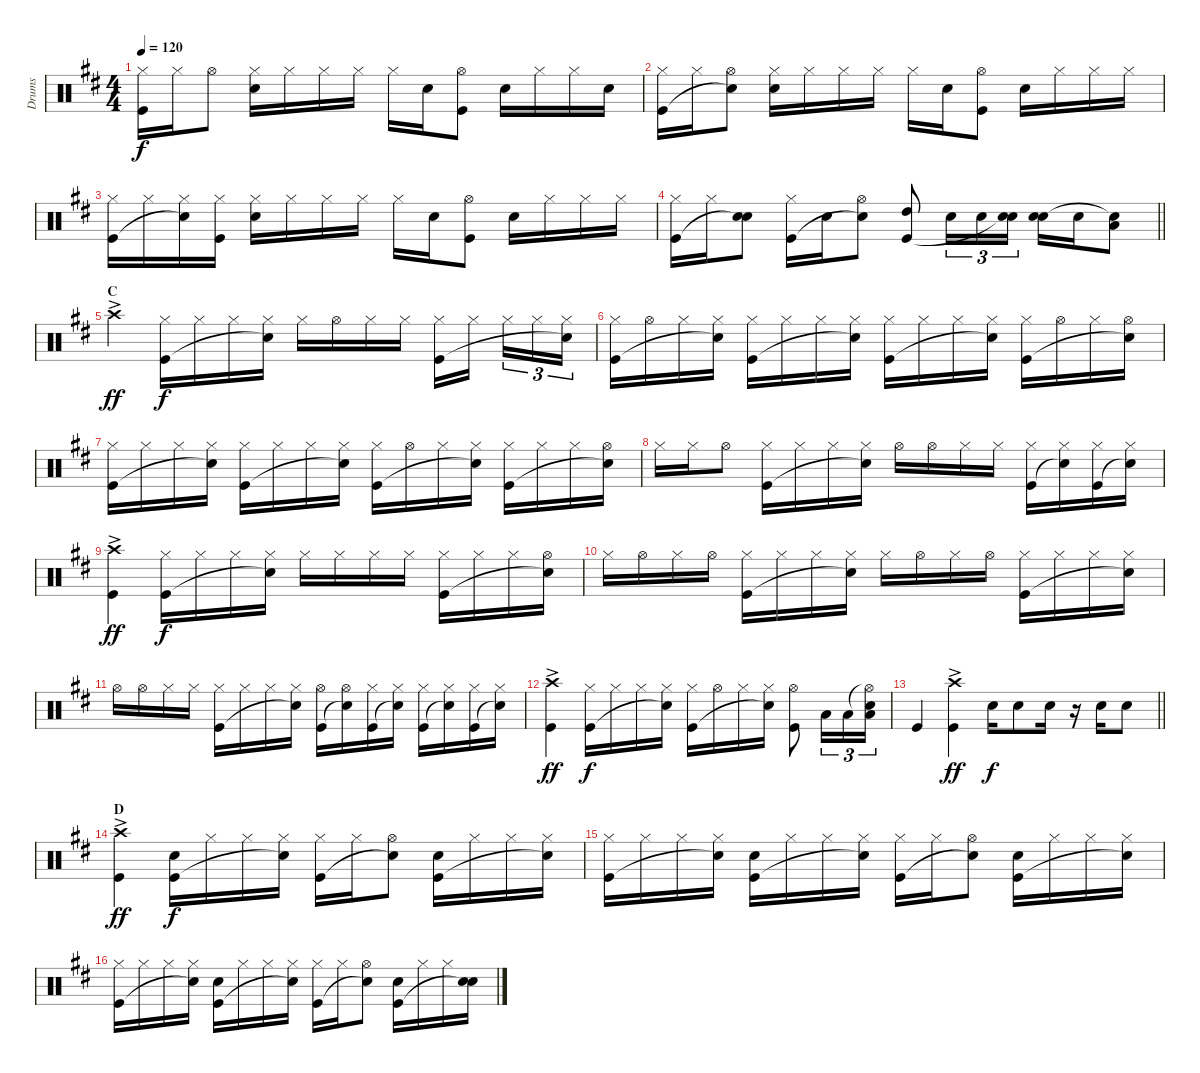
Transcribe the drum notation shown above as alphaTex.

\track ("Drums" "Drums") {instrument percussion}
\staff {score}
\articulation defaults
\ts (4 4)
\tempo 120
\clef neutral
\ks d
("Hi-Hat (closed)" "Kick (hit)").16{dy f} "Hi-Hat (closed)".16 "Hi-Hat (open)".8 ("Hi-Hat (closed)" "Snare (hit) 2").16 "Hi-Hat (closed)".16 "Hi-Hat (closed)".16 "Hi-Hat (closed)".16 "Hi-Hat (closed)".16 "Snare (hit) 2".16 ("Hi-Hat (open)" "Kick (hit)").8 "Snare (hit) 2".16 "Hi-Hat (closed)".16 "Hi-Hat (closed)".16 "Snare (hit) 2".16 |
("Hi-Hat (closed)" "Kick (hit)").16 "Hi-Hat (closed)".16 ("Hi-Hat (open)" "Snare (hit)"{t}).8 ("Hi-Hat (closed)" "Snare (hit) 2").16 "Hi-Hat (closed)".16 "Hi-Hat (closed)".16 "Hi-Hat (closed)".16 "Hi-Hat (closed)".16 "Snare (hit) 2".16 ("Hi-Hat (open)" "Kick (hit)").8 "Snare (hit) 2".16 "Hi-Hat (closed)".16 "Hi-Hat (closed)".16 "Hi-Hat (closed)".16 |
("Hi-Hat (closed)" "Kick (hit)").16 "Hi-Hat (closed)".16 ("Hi-Hat (closed)" "Snare (hit)"{t}).16 ("Hi-Hat (closed)" "Kick (hit)").16 ("Hi-Hat (closed)" "Snare (hit) 2").16 "Hi-Hat (closed)".16 "Hi-Hat (closed)".16 "Hi-Hat (closed)".16 "Hi-Hat (closed)".16 "Snare (hit) 2".16 ("Hi-Hat (open)" "Kick (hit)").8 "Snare (hit) 2".16 "Hi-Hat (closed)".16 "Hi-Hat (closed)".16 "Hi-Hat (closed)".16 |
\barLineRight lightlight
("Hi-Hat (closed)" "Kick (hit)").16 "Hi-Hat (closed)".16 ("Snare (hit) 2" "Snare (hit)"{t}).8 ("Hi-Hat (closed)" "Kick (hit)").16 "Snare (hit) 2".16 ("Hi-Hat (open)" "Snare (hit)"{t}).8 ("High Tom (hit)" "Kick (hit)").8 "Snare (hit) 2".16{tu (3 2)} "Snare (hit) 2".16{tu (3 2)} ("Snare (hit) 2" "Snare (hit)"{t}).16{tu (3 2)} ("Snare (hit) 2" "Snare (hit) 2").16 "Snare (hit) 2".16 ("Low Tom (hit)" "Snare (hit)"{t}).8 |
\section ("" "C")
"Crash high (hit)"{ac}.4{dy ff} ("Hi-Hat (closed)" "Kick (hit)").16{dy f} "Hi-Hat (closed)".16 "Hi-Hat (closed)".16 ("Hi-Hat (closed)" "Snare (hit)"{t}).16 "Hi-Hat (closed)".16 "Hi-Hat (open)".16 "Hi-Hat (closed)".16 "Hi-Hat (closed)".16 ("Hi-Hat (closed)" "Kick (hit)").16 "Hi-Hat (closed)".16{beam splitsecondary} "Hi-Hat (closed)".16{tu (3 2)} "Hi-Hat (closed)".16{tu (3 2)} ("Hi-Hat (closed)" "Snare (hit)"{t}).16{tu (3 2)} |
("Hi-Hat (closed)" "Kick (hit)").16 "Hi-Hat (open)".16 "Hi-Hat (closed)".16 ("Hi-Hat (closed)" "Snare (hit)"{t}).16 ("Hi-Hat (closed)" "Kick (hit)").16 "Hi-Hat (closed)".16 "Hi-Hat (closed)".16 ("Hi-Hat (closed)" "Snare (hit)"{t}).16 ("Hi-Hat (closed)" "Kick (hit)").16 "Hi-Hat (closed)".16 "Hi-Hat (closed)".16 ("Hi-Hat (closed)" "Snare (hit)"{t}).16 ("Hi-Hat (closed)" "Kick (hit)").16 "Hi-Hat (open)".16 "Hi-Hat (closed)".16 ("Hi-Hat (open)" "Snare (hit)"{t}).16 |
("Hi-Hat (closed)" "Kick (hit)").16 "Hi-Hat (closed)".16 "Hi-Hat (closed)".16 ("Hi-Hat (closed)" "Snare (hit)"{t}).16 ("Hi-Hat (closed)" "Kick (hit)").16 "Hi-Hat (closed)".16 "Hi-Hat (closed)".16 ("Hi-Hat (closed)" "Snare (hit)"{t}).16 ("Hi-Hat (closed)" "Kick (hit)").16 "Hi-Hat (open)".16 "Hi-Hat (closed)".16 ("Hi-Hat (closed)" "Snare (hit)"{t}).16 ("Hi-Hat (closed)" "Kick (hit)").16 "Hi-Hat (closed)".16 "Hi-Hat (closed)".16 ("Hi-Hat (open)" "Snare (hit)"{t}).16 |
"Hi-Hat (closed)".16 "Hi-Hat (closed)".16 "Hi-Hat (open)".8 ("Hi-Hat (closed)" "Kick (hit)").16 "Hi-Hat (closed)".16 "Hi-Hat (closed)".16 ("Hi-Hat (closed)" "Snare (hit)"{t}).16 "Hi-Hat (open)".16 "Hi-Hat (open)".16 "Hi-Hat (closed)".16 "Hi-Hat (closed)".16 ("Hi-Hat (closed)" "Kick (hit)").16 ("Hi-Hat (closed)" "Snare (hit)"{t}).16 ("Hi-Hat (closed)" "Kick (hit)").16 ("Hi-Hat (closed)" "Snare (hit)"{t}).16 |
("Crash high (hit)"{ac} "Kick (hit)").4{dy ff} ("Hi-Hat (closed)" "Kick (hit)").16{dy f} "Hi-Hat (closed)".16 "Hi-Hat (closed)".16 ("Hi-Hat (closed)" "Snare (hit)"{t}).16 "Hi-Hat (closed)".16 "Hi-Hat (closed)".16 "Hi-Hat (closed)".16 "Hi-Hat (closed)".16 ("Hi-Hat (closed)" "Kick (hit)").16 "Hi-Hat (closed)".16 "Hi-Hat (closed)".16 ("Hi-Hat (open)" "Snare (hit)"{t}).16 |
"Hi-Hat (closed)".16 "Hi-Hat (open)".16 "Hi-Hat (closed)".16 "Hi-Hat (open)".16 ("Hi-Hat (closed)" "Kick (hit)").16 "Hi-Hat (closed)".16 "Hi-Hat (closed)".16 ("Hi-Hat (closed)" "Snare (hit)"{t}).16 "Hi-Hat (closed)".16 "Hi-Hat (open)".16 "Hi-Hat (closed)".16 "Hi-Hat (open)".16 ("Hi-Hat (closed)" "Kick (hit)").16 "Hi-Hat (closed)".16 "Hi-Hat (closed)".16 ("Hi-Hat (closed)" "Snare (hit)"{t}).16 |
"Hi-Hat (open)".16 "Hi-Hat (open)".16 "Hi-Hat (closed)".16 "Hi-Hat (closed)".16 ("Hi-Hat (closed)" "Kick (hit)").16 "Hi-Hat (closed)".16 "Hi-Hat (closed)".16 ("Hi-Hat (closed)" "Snare (hit)"{t}).16 ("Hi-Hat (open)" "Kick (hit)").16 ("Hi-Hat (open)" "Snare (hit)"{t}).16 ("Hi-Hat (closed)" "Kick (hit)").16 ("Hi-Hat (closed)" "Snare (hit)"{t}).16 ("Hi-Hat (closed)" "Kick (hit)").16 ("Hi-Hat (closed)" "Snare (hit)"{t}).16 ("Hi-Hat (closed)" "Kick (hit)").16 ("Hi-Hat (closed)" "Snare (hit)"{t}).16 |
("Crash high (hit)"{ac} "Kick (hit)").4{dy ff} ("Hi-Hat (closed)" "Kick (hit)").16{dy f} "Hi-Hat (closed)".16 "Hi-Hat (closed)".16 ("Hi-Hat (closed)" "Snare (hit)"{t}).16 ("Hi-Hat (closed)" "Kick (hit)").16 "Hi-Hat (open)".16 "Hi-Hat (closed)".16 ("Hi-Hat (closed)" "Snare (hit)"{t}).16 ("Hi-Hat (open)" "Kick (hit)").8 "Low Tom (hit)".16{tu (3 2)} "Low Tom (hit)".16{tu (3 2)} ("Hi-Hat (open)"{t} "Low Tom (hit)" "Snare (hit)").16{tu (3 2)} |
\barLineRight lightlight "Kick (hit)".4
("Crash high (hit)"{ac} "Kick (hit)").4{dy ff} "Snare (hit) 2".16{dy f} "Snare (hit) 2".8 "Snare (hit) 2".16 r.16 "Snare (hit) 2".16 "Snare (hit) 2".8 |
\section ("" "D")
("Crash high (hit)"{ac} "Kick (hit)").4{dy ff} ("Snare (hit) 2" "Kick (hit)").16{dy f} "Hi-Hat (closed)".16 "Hi-Hat (closed)".16 ("Hi-Hat (closed)" "Snare (hit)"{t}).16 ("Hi-Hat (closed)" "Kick (hit)").16 "Hi-Hat (closed)".16 ("Hi-Hat (open)" "Snare (hit)"{t}).8 ("Snare (hit) 2" "Kick (hit)").16 "Hi-Hat (closed)".16 "Hi-Hat (closed)".16 ("Hi-Hat (closed)" "Snare (hit)"{t}).16 |
("Hi-Hat (closed)" "Kick (hit)").16 "Hi-Hat (closed)".16 "Hi-Hat (closed)".16 ("Hi-Hat (closed)" "Snare (hit)"{t}).16 ("Snare (hit) 2" "Kick (hit)").16 "Hi-Hat (closed)".16 "Hi-Hat (closed)".16 ("Hi-Hat (closed)" "Snare (hit)"{t}).16 ("Hi-Hat (closed)" "Kick (hit)").16 "Hi-Hat (closed)".16 ("Hi-Hat (open)" "Snare (hit)"{t}).8 ("Snare (hit) 2" "Kick (hit)").16 "Hi-Hat (closed)".16 "Hi-Hat (closed)".16 ("Hi-Hat (closed)" "Snare (hit)"{t}).16 |
("Hi-Hat (closed)" "Kick (hit)").16 "Hi-Hat (closed)".16 "Hi-Hat (closed)".16 ("Hi-Hat (closed)" "Snare (hit)"{t}).16 ("Snare (hit) 2" "Kick (hit)").16 "Hi-Hat (closed)".16 "Hi-Hat (closed)".16 ("Hi-Hat (closed)" "Snare (hit)"{t}).16 ("Hi-Hat (closed)" "Kick (hit)").16 "Hi-Hat (closed)".16 ("Hi-Hat (open)" "Snare (hit)"{t}).8 ("Snare (hit) 2" "Kick (hit)").16 "Hi-Hat (closed)".16 "Hi-Hat (closed)".16 ("Snare (hit) 2" "Snare (hit)"{t}).16
